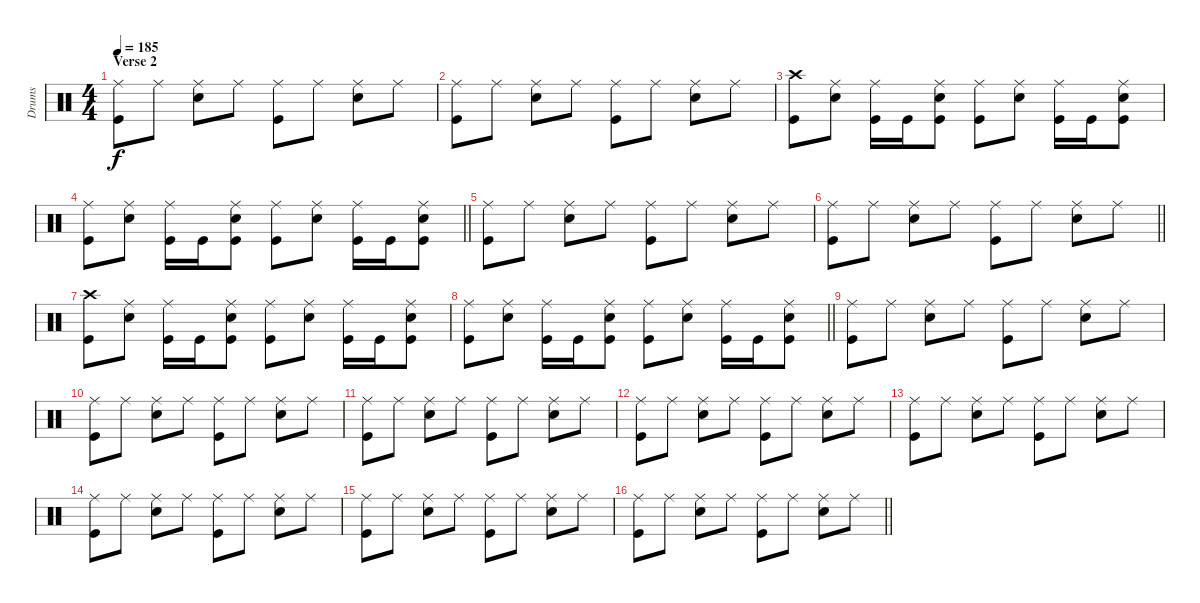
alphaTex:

\track ("Drums" "Drums") {instrument percussion}
\staff {score}
\articulation defaults
\ts (4 4)
\section ("" "Verse 2")
\tempo 185
\clef neutral
\ks c
("Kick (hit)" "Ride (middle)").8{dy f} "Ride (middle)".8 ("Ride (middle)" "Snare (hit) 2").8 "Ride (middle)".8 ("Ride (middle)" "Kick (hit)").8 "Ride (middle)".8 ("Ride (middle)" "Snare (hit) 2").8 "Ride (middle)".8 |
("Ride (middle)" "Kick (hit)").8 "Ride (middle)".8 ("Ride (middle)" "Snare (hit) 2").8 "Ride (middle)".8 ("Ride (middle)" "Kick (hit)").8 "Ride (middle)".8 ("Ride (middle)" "Snare (hit) 2").8 "Ride (middle)".8 |
("Kick (hit)" "Crash high (hit)").8 ("Snare (hit) 2" "Ride (middle)").8 ("Kick (hit)" "Ride (middle)").16 "Kick (hit)".16 ("Kick (hit)" "Ride (middle)" "Snare (hit) 2").8 ("Kick (hit)" "Ride (middle)").8 ("Snare (hit) 2" "Ride (middle)").8 ("Kick (hit)" "Ride (middle)").16 "Kick (hit)".16 ("Kick (hit)" "Ride (middle)" "Snare (hit) 2").8 |
\barLineRight lightlight
("Kick (hit)" "Ride (middle)").8 ("Snare (hit) 2" "Ride (middle)").8 ("Kick (hit)" "Ride (middle)").16 "Kick (hit)".16 ("Kick (hit)" "Ride (middle)" "Snare (hit) 2").8 ("Kick (hit)" "Ride (middle)").8 ("Snare (hit) 2" "Ride (middle)").8 ("Kick (hit)" "Ride (middle)").16 "Kick (hit)".16 ("Kick (hit)" "Ride (middle)" "Snare (hit) 2").8 |
("Kick (hit)" "Ride (middle)").8 "Ride (middle)".8 ("Ride (middle)" "Snare (hit) 2").8 "Ride (middle)".8 ("Ride (middle)" "Kick (hit)").8 "Ride (middle)".8 ("Ride (middle)" "Snare (hit) 2").8 "Ride (middle)".8 |
\barLineRight lightlight
("Ride (middle)" "Kick (hit)").8 "Ride (middle)".8 ("Ride (middle)" "Snare (hit) 2").8 "Ride (middle)".8 ("Ride (middle)" "Kick (hit)").8 "Ride (middle)".8 ("Ride (middle)" "Snare (hit) 2").8 "Ride (middle)".8 |
("Kick (hit)" "Crash high (hit)").8 ("Snare (hit) 2" "Ride (middle)").8 ("Kick (hit)" "Ride (middle)").16 "Kick (hit)".16 ("Kick (hit)" "Ride (middle)" "Snare (hit) 2").8 ("Kick (hit)" "Ride (middle)").8 ("Snare (hit) 2" "Ride (middle)").8 ("Kick (hit)" "Ride (middle)").16 "Kick (hit)".16 ("Kick (hit)" "Ride (middle)" "Snare (hit) 2").8 |
\barLineRight lightlight
("Kick (hit)" "Ride (middle)").8 ("Snare (hit) 2" "Ride (middle)").8 ("Kick (hit)" "Ride (middle)").16 "Kick (hit)".16 ("Kick (hit)" "Ride (middle)" "Snare (hit) 2").8 ("Kick (hit)" "Ride (middle)").8 ("Snare (hit) 2" "Ride (middle)").8 ("Kick (hit)" "Ride (middle)").16 "Kick (hit)".16 ("Kick (hit)" "Ride (middle)" "Snare (hit) 2").8 |
("Kick (hit)" "Ride (middle)").8 "Ride (middle)".8 ("Ride (middle)" "Snare (hit) 2").8 "Ride (middle)".8 ("Ride (middle)" "Kick (hit)").8 "Ride (middle)".8 ("Ride (middle)" "Snare (hit) 2").8 "Ride (middle)".8 |
("Ride (middle)" "Kick (hit)").8 "Ride (middle)".8 ("Ride (middle)" "Snare (hit) 2").8 "Ride (middle)".8 ("Ride (middle)" "Kick (hit)").8 "Ride (middle)".8 ("Ride (middle)" "Snare (hit) 2").8 "Ride (middle)".8 |
("Kick (hit)" "Ride (middle)").8 "Ride (middle)".8 ("Ride (middle)" "Snare (hit) 2").8 "Ride (middle)".8 ("Ride (middle)" "Kick (hit)").8 "Ride (middle)".8 ("Ride (middle)" "Snare (hit) 2").8 "Ride (middle)".8 |
("Ride (middle)" "Kick (hit)").8 "Ride (middle)".8 ("Ride (middle)" "Snare (hit) 2").8 "Ride (middle)".8 ("Ride (middle)" "Kick (hit)").8 "Ride (middle)".8 ("Ride (middle)" "Snare (hit) 2").8 "Ride (middle)".8 |
("Kick (hit)" "Ride (middle)").8 "Ride (middle)".8 ("Ride (middle)" "Snare (hit) 2").8 "Ride (middle)".8 ("Ride (middle)" "Kick (hit)").8 "Ride (middle)".8 ("Ride (middle)" "Snare (hit) 2").8 "Ride (middle)".8 |
("Ride (middle)" "Kick (hit)").8 "Ride (middle)".8 ("Ride (middle)" "Snare (hit) 2").8 "Ride (middle)".8 ("Ride (middle)" "Kick (hit)").8 "Ride (middle)".8 ("Ride (middle)" "Snare (hit) 2").8 "Ride (middle)".8 |
("Kick (hit)" "Ride (middle)").8 "Ride (middle)".8 ("Ride (middle)" "Snare (hit) 2").8 "Ride (middle)".8 ("Ride (middle)" "Kick (hit)").8 "Ride (middle)".8 ("Ride (middle)" "Snare (hit) 2").8 "Ride (middle)".8 |
\barLineRight lightlight
("Ride (middle)" "Kick (hit)").8 "Ride (middle)".8 ("Ride (middle)" "Snare (hit) 2").8 "Ride (middle)".8 ("Ride (middle)" "Kick (hit)").8 "Ride (middle)".8 ("Ride (middle)" "Snare (hit) 2").8 "Ride (middle)".8
